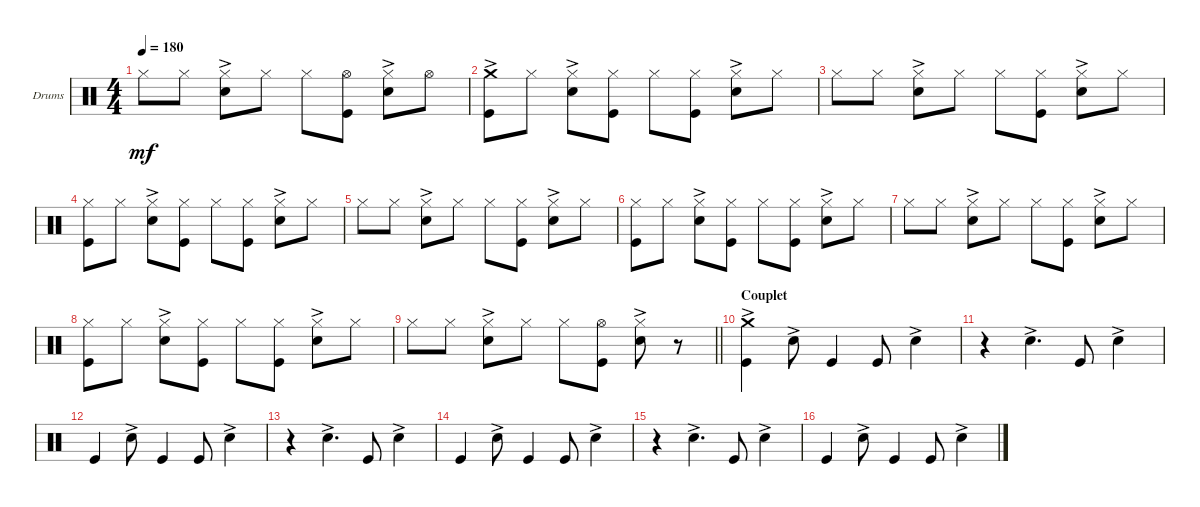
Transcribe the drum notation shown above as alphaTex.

\defaultSystemsLayout 4
\bracketExtendMode groupsimilarinstruments
\firstSystemTrackNameOrientation horizontal
\otherSystemsTrackNameOrientation horizontal
\track ("Will - Drumkit" "Drums") {instrument percussion}
\staff {score}
\articulation defaults
\ts (4 4)
\tempo 180
\clef neutral
\ks c "Hi-Hat (closed)".8{dy mf} "Hi-Hat (closed)".8
("Hi-Hat (closed)" "Snare (hit) 2"{ac}).8 "Hi-Hat (closed)".8 "Hi-Hat (closed)".8 ("Hi-Hat (open)" "Kick (hit)").8 ("Hi-Hat (closed)" "Snare (hit) 2"{ac}).8 "Hi-Hat (open)".8 |
("Kick (hit)" "Crash medium (hit)"{ac}).8 "Hi-Hat (closed)".8 ("Hi-Hat (closed)" "Snare (hit) 2"{ac}).8 ("Hi-Hat (closed)" "Kick (hit)").8 "Hi-Hat (closed)".8 ("Hi-Hat (closed)" "Kick (hit)").8 ("Hi-Hat (closed)" "Snare (hit) 2"{ac}).8 "Hi-Hat (closed)".8 |
"Hi-Hat (closed)".8 "Hi-Hat (closed)".8 ("Hi-Hat (closed)" "Snare (hit) 2"{ac}).8 "Hi-Hat (closed)".8 "Hi-Hat (closed)".8 ("Hi-Hat (closed)" "Kick (hit)").8 ("Hi-Hat (closed)" "Snare (hit) 2"{ac}).8 "Hi-Hat (closed)".8 |
("Kick (hit)" "Hi-Hat (closed)").8 "Hi-Hat (closed)".8 ("Hi-Hat (closed)" "Snare (hit) 2"{ac}).8 ("Hi-Hat (closed)" "Kick (hit)").8 "Hi-Hat (closed)".8 ("Hi-Hat (closed)" "Kick (hit)").8 ("Hi-Hat (closed)" "Snare (hit) 2"{ac}).8 "Hi-Hat (closed)".8 |
"Hi-Hat (closed)".8 "Hi-Hat (closed)".8 ("Hi-Hat (closed)" "Snare (hit) 2"{ac}).8 "Hi-Hat (closed)".8 "Hi-Hat (closed)".8 ("Hi-Hat (closed)" "Kick (hit)").8 ("Hi-Hat (closed)" "Snare (hit) 2"{ac}).8 "Hi-Hat (closed)".8 |
("Kick (hit)" "Hi-Hat (closed)").8 "Hi-Hat (closed)".8 ("Hi-Hat (closed)" "Snare (hit) 2"{ac}).8 ("Hi-Hat (closed)" "Kick (hit)").8 "Hi-Hat (closed)".8 ("Hi-Hat (closed)" "Kick (hit)").8 ("Hi-Hat (closed)" "Snare (hit) 2"{ac}).8 "Hi-Hat (closed)".8 |
"Hi-Hat (closed)".8 "Hi-Hat (closed)".8 ("Hi-Hat (closed)" "Snare (hit) 2"{ac}).8 "Hi-Hat (closed)".8 "Hi-Hat (closed)".8 ("Hi-Hat (closed)" "Kick (hit)").8 ("Hi-Hat (closed)" "Snare (hit) 2"{ac}).8 "Hi-Hat (closed)".8 |
("Kick (hit)" "Hi-Hat (closed)").8 "Hi-Hat (closed)".8 ("Hi-Hat (closed)" "Snare (hit) 2"{ac}).8 ("Hi-Hat (closed)" "Kick (hit)").8 "Hi-Hat (closed)".8 ("Hi-Hat (closed)" "Kick (hit)").8 ("Hi-Hat (closed)" "Snare (hit) 2"{ac}).8 "Hi-Hat (closed)".8 |
\barLineRight lightlight "Hi-Hat (closed)".8 "Hi-Hat (closed)".8
("Hi-Hat (closed)" "Snare (hit) 2"{ac}).8 "Hi-Hat (closed)".8 "Hi-Hat (closed)".8 ("Hi-Hat (open)" "Kick (hit)").8 ("Hi-Hat (closed)" "Snare (hit) 2"{ac}).8 r.8 |
\section ("" "Couplet")
("Kick (hit)" "Crash medium (hit)"{ac}).4 "Snare (hit) 2"{ac}.8 "Kick (hit)".4 "Kick (hit)".8 "Snare (hit) 2"{ac}.4 |
r.4 "Snare (hit) 2"{ac}.4{d} "Kick (hit)".8 "Snare (hit) 2"{ac}.4 |
"Kick (hit)".4 "Snare (hit) 2"{ac}.8 "Kick (hit)".4 "Kick (hit)".8 "Snare (hit) 2"{ac}.4 |
r.4 "Snare (hit) 2"{ac}.4{d} "Kick (hit)".8 "Snare (hit) 2"{ac}.4 |
"Kick (hit)".4 "Snare (hit) 2"{ac}.8 "Kick (hit)".4 "Kick (hit)".8 "Snare (hit) 2"{ac}.4 |
r.4 "Snare (hit) 2"{ac}.4{d} "Kick (hit)".8 "Snare (hit) 2"{ac}.4 |
"Kick (hit)".4 "Snare (hit) 2"{ac}.8 "Kick (hit)".4 "Kick (hit)".8 "Snare (hit) 2"{ac}.4
